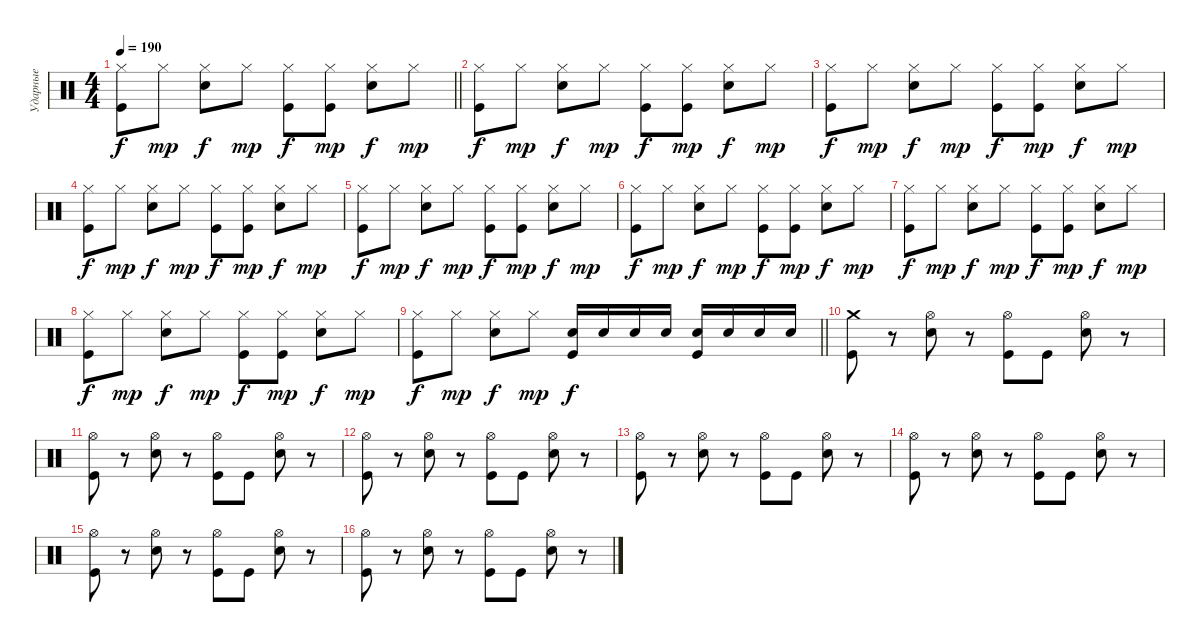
\track ("Ударные" "Ударные") {instrument percussion}
\staff {score}
\articulation defaults
\ts (4 4)
\tempo 190
\clef neutral
\barLineRight lightlight
\ks c
("Hi-Hat (closed)" "Kick (hit)").8{dy f} "Hi-Hat (closed)".8{dy mp} ("Hi-Hat (closed)" "Electric Snare (hit)").8{dy f} "Hi-Hat (closed)".8{dy mp} ("Hi-Hat (closed)" "Kick (hit)").8{dy f} ("Hi-Hat (closed)" "Kick (hit)").8{dy mp} ("Hi-Hat (closed)" "Electric Snare (hit)").8{dy f} "Hi-Hat (closed)".8{dy mp} |
\section ("" " ")
("Hi-Hat (closed)" "Kick (hit)").8{dy f} "Hi-Hat (closed)".8{dy mp} ("Hi-Hat (closed)" "Electric Snare (hit)").8{dy f} "Hi-Hat (closed)".8{dy mp} ("Hi-Hat (closed)" "Kick (hit)").8{dy f} ("Hi-Hat (closed)" "Kick (hit)").8{dy mp} ("Hi-Hat (closed)" "Electric Snare (hit)").8{dy f} "Hi-Hat (closed)".8{dy mp} |
("Hi-Hat (closed)" "Kick (hit)").8{dy f} "Hi-Hat (closed)".8{dy mp} ("Hi-Hat (closed)" "Electric Snare (hit)").8{dy f} "Hi-Hat (closed)".8{dy mp} ("Hi-Hat (closed)" "Kick (hit)").8{dy f} ("Hi-Hat (closed)" "Kick (hit)").8{dy mp} ("Hi-Hat (closed)" "Electric Snare (hit)").8{dy f} "Hi-Hat (closed)".8{dy mp} |
("Hi-Hat (closed)" "Kick (hit)").8{dy f} "Hi-Hat (closed)".8{dy mp} ("Hi-Hat (closed)" "Electric Snare (hit)").8{dy f} "Hi-Hat (closed)".8{dy mp} ("Hi-Hat (closed)" "Kick (hit)").8{dy f} ("Hi-Hat (closed)" "Kick (hit)").8{dy mp} ("Hi-Hat (closed)" "Electric Snare (hit)").8{dy f} "Hi-Hat (closed)".8{dy mp} |
("Hi-Hat (closed)" "Kick (hit)").8{dy f} "Hi-Hat (closed)".8{dy mp} ("Hi-Hat (closed)" "Electric Snare (hit)").8{dy f} "Hi-Hat (closed)".8{dy mp} ("Hi-Hat (closed)" "Kick (hit)").8{dy f} ("Hi-Hat (closed)" "Kick (hit)").8{dy mp} ("Hi-Hat (closed)" "Electric Snare (hit)").8{dy f} "Hi-Hat (closed)".8{dy mp} |
("Hi-Hat (closed)" "Kick (hit)").8{dy f} "Hi-Hat (closed)".8{dy mp} ("Hi-Hat (closed)" "Electric Snare (hit)").8{dy f} "Hi-Hat (closed)".8{dy mp} ("Hi-Hat (closed)" "Kick (hit)").8{dy f} ("Hi-Hat (closed)" "Kick (hit)").8{dy mp} ("Hi-Hat (closed)" "Electric Snare (hit)").8{dy f} "Hi-Hat (closed)".8{dy mp} |
("Hi-Hat (closed)" "Kick (hit)").8{dy f} "Hi-Hat (closed)".8{dy mp} ("Hi-Hat (closed)" "Electric Snare (hit)").8{dy f} "Hi-Hat (closed)".8{dy mp} ("Hi-Hat (closed)" "Kick (hit)").8{dy f} ("Hi-Hat (closed)" "Kick (hit)").8{dy mp} ("Hi-Hat (closed)" "Electric Snare (hit)").8{dy f} "Hi-Hat (closed)".8{dy mp} |
("Hi-Hat (closed)" "Kick (hit)").8{dy f} "Hi-Hat (closed)".8{dy mp} ("Hi-Hat (closed)" "Electric Snare (hit)").8{dy f} "Hi-Hat (closed)".8{dy mp} ("Hi-Hat (closed)" "Kick (hit)").8{dy f} ("Hi-Hat (closed)" "Kick (hit)").8{dy mp} ("Hi-Hat (closed)" "Electric Snare (hit)").8{dy f} "Hi-Hat (closed)".8{dy mp} |
\barLineRight lightlight
("Hi-Hat (closed)" "Kick (hit)").8{dy f} "Hi-Hat (closed)".8{dy mp} ("Hi-Hat (closed)" "Electric Snare (hit)").8{dy f} "Hi-Hat (closed)".8{dy mp} ("Electric Snare (hit)" "Kick (hit)").16{dy f} "Electric Snare (hit)".16 "Electric Snare (hit)".16 "Electric Snare (hit)".16 ("Electric Snare (hit)" "Kick (hit)").16 "Electric Snare (hit)".16 "Electric Snare (hit)".16 "Electric Snare (hit)".16 |
\section ("" " ")
("Crash medium (hit)" "Kick (hit)").8 r.8 ("Hi-Hat (open)" "Electric Snare (hit)").8 r.8 ("Hi-Hat (open)" "Kick (hit)").8 "Kick (hit)".8 ("Hi-Hat (open)" "Electric Snare (hit)").8 r.8 |
("Hi-Hat (open)" "Kick (hit)").8 r.8 ("Hi-Hat (open)" "Electric Snare (hit)").8 r.8 ("Hi-Hat (open)" "Kick (hit)").8 "Kick (hit)".8 ("Hi-Hat (open)" "Electric Snare (hit)").8 r.8 |
("Hi-Hat (open)" "Kick (hit)").8 r.8 ("Hi-Hat (open)" "Electric Snare (hit)").8 r.8 ("Hi-Hat (open)" "Kick (hit)").8 "Kick (hit)".8 ("Hi-Hat (open)" "Electric Snare (hit)").8 r.8 |
("Hi-Hat (open)" "Kick (hit)").8 r.8 ("Hi-Hat (open)" "Electric Snare (hit)").8 r.8 ("Hi-Hat (open)" "Kick (hit)").8 "Kick (hit)".8 ("Hi-Hat (open)" "Electric Snare (hit)").8 r.8 |
("Hi-Hat (open)" "Kick (hit)").8 r.8 ("Hi-Hat (open)" "Electric Snare (hit)").8 r.8 ("Hi-Hat (open)" "Kick (hit)").8 "Kick (hit)".8 ("Hi-Hat (open)" "Electric Snare (hit)").8 r.8 |
("Hi-Hat (open)" "Kick (hit)").8 r.8 ("Hi-Hat (open)" "Electric Snare (hit)").8 r.8 ("Hi-Hat (open)" "Kick (hit)").8 "Kick (hit)".8 ("Hi-Hat (open)" "Electric Snare (hit)").8 r.8 |
("Hi-Hat (open)" "Kick (hit)").8 r.8 ("Hi-Hat (open)" "Electric Snare (hit)").8 r.8 ("Hi-Hat (open)" "Kick (hit)").8 "Kick (hit)".8 ("Hi-Hat (open)" "Electric Snare (hit)").8 r.8
